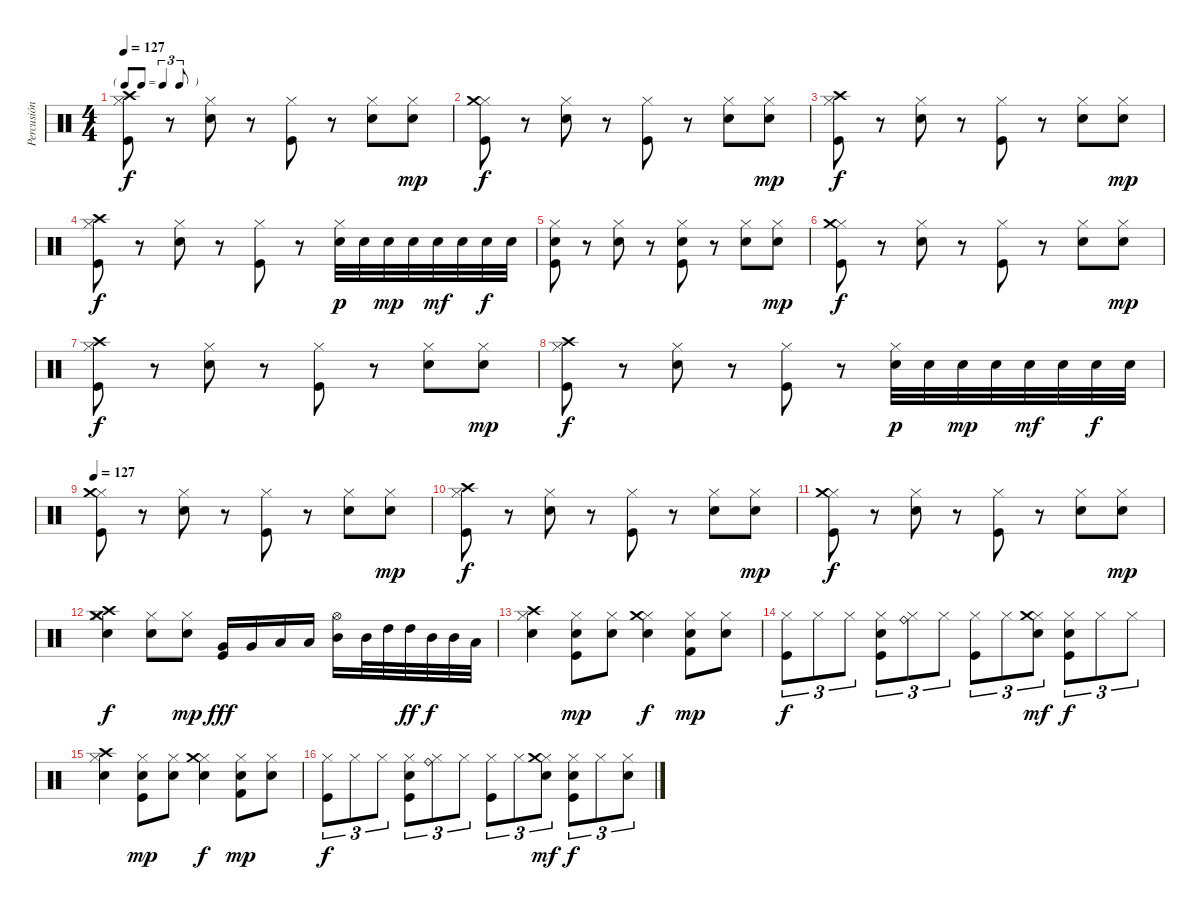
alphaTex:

\track ("Percusión" "Percusión") {instrument percussion}
\staff {score}
\articulation defaults
\ts (4 4)
\tf triplet8th
\tempo 127
\clef neutral
\ks c
("Hi-Hat (closed)" "Crash high (hit)" "Kick (hit)").8{dy f} r.8 ("Hi-Hat (closed)" "Snare (hit) 2").8 r.8 ("Hi-Hat (closed)" "Kick (hit)").8 r.8 ("Hi-Hat (closed)" "Snare (hit) 2").8 ("Hi-Hat (closed)" "Snare (hit) 2").8{dy mp} |
("Hi-Hat (closed)" "Crash medium (hit)" "Kick (hit)").8{dy f} r.8 ("Hi-Hat (closed)" "Snare (hit) 2").8 r.8 ("Hi-Hat (closed)" "Kick (hit)").8 r.8 ("Hi-Hat (closed)" "Snare (hit) 2").8 ("Hi-Hat (closed)" "Snare (hit) 2").8{dy mp} |
("Hi-Hat (closed)" "Crash high (hit)" "Kick (hit)").8{dy f} r.8 ("Hi-Hat (closed)" "Snare (hit) 2").8 r.8 ("Hi-Hat (closed)" "Kick (hit)").8 r.8 ("Hi-Hat (closed)" "Snare (hit) 2").8 ("Hi-Hat (closed)" "Snare (hit) 2").8{dy mp} |
("Hi-Hat (closed)" "Crash high (hit)" "Kick (hit)").8{dy f} r.8 ("Hi-Hat (closed)" "Snare (hit) 2").8 r.8 ("Hi-Hat (closed)" "Kick (hit)").8 r.8 ("Hi-Hat (closed)" "Snare (hit) 2").32{dy p} "Snare (hit) 2".32 "Snare (hit) 2".32{dy mp} "Snare (hit) 2".32 "Snare (hit) 2".32{dy mf} "Snare (hit) 2".32 "Snare (hit) 2".32{dy f} "Snare (hit) 2".32 |
("Hi-Hat (closed)" "Snare (hit) 2" "Kick (hit)").8 r.8 ("Hi-Hat (closed)" "Snare (hit) 2").8 r.8 ("Hi-Hat (closed)" "Snare (hit) 2" "Kick (hit)").8 r.8 ("Hi-Hat (closed)" "Snare (hit) 2").8 ("Hi-Hat (closed)" "Snare (hit) 2").8{dy mp} |
("Hi-Hat (closed)" "Crash medium (hit)" "Kick (hit)").8{dy f} r.8 ("Hi-Hat (closed)" "Snare (hit) 2").8 r.8 ("Hi-Hat (closed)" "Kick (hit)").8 r.8 ("Hi-Hat (closed)" "Snare (hit) 2").8 ("Hi-Hat (closed)" "Snare (hit) 2").8{dy mp} |
("Hi-Hat (closed)" "Crash high (hit)" "Kick (hit)").8{dy f} r.8 ("Hi-Hat (closed)" "Snare (hit) 2").8 r.8 ("Hi-Hat (closed)" "Kick (hit)").8 r.8 ("Hi-Hat (closed)" "Snare (hit) 2").8 ("Hi-Hat (closed)" "Snare (hit) 2").8{dy mp} |
("Hi-Hat (closed)" "Crash high (hit)" "Kick (hit)").8{dy f} r.8 ("Hi-Hat (closed)" "Snare (hit) 2").8 r.8 ("Hi-Hat (closed)" "Kick (hit)").8 r.8 ("Hi-Hat (closed)" "Snare (hit) 2").32{dy p} "Snare (hit) 2".32 "Snare (hit) 2".32{dy mp} "Snare (hit) 2".32 "Snare (hit) 2".32{dy mf} "Snare (hit) 2".32 "Snare (hit) 2".32{dy f} "Snare (hit) 2".32 |
\tempo 127
("Hi-Hat (closed)" "Crash medium (hit)" "Kick (hit)").8 r.8 ("Hi-Hat (closed)" "Snare (hit) 2").8 r.8 ("Hi-Hat (closed)" "Kick (hit)").8 r.8 ("Hi-Hat (closed)" "Snare (hit) 2").8 ("Hi-Hat (closed)" "Snare (hit) 2").8{dy mp} |
("Hi-Hat (closed)" "Crash high (hit)" "Kick (hit)").8{dy f} r.8 ("Hi-Hat (closed)" "Snare (hit) 2").8 r.8 ("Hi-Hat (closed)" "Kick (hit)").8 r.8 ("Hi-Hat (closed)" "Snare (hit) 2").8 ("Hi-Hat (closed)" "Snare (hit) 2").8{dy mp} |
("Hi-Hat (closed)" "Crash medium (hit)" "Kick (hit)").8{dy f} r.8 ("Hi-Hat (closed)" "Snare (hit) 2").8 r.8 ("Hi-Hat (closed)" "Kick (hit)").8 r.8 ("Hi-Hat (closed)" "Snare (hit) 2").8 ("Hi-Hat (closed)" "Snare (hit) 2").8{dy mp} |
("Crash medium (hit)" "Crash high (hit)" "Snare (hit) 2" "Hi-Hat (closed)").4{dy f} ("Hi-Hat (closed)" "Snare (hit) 2").8 ("Hi-Hat (closed)" "Snare (hit) 2").8{dy mp} ("Very Low Tom (hit)" "Kick (hit)").16{dy fff} "Very Low Tom (hit)".16 "Low Tom (hit)".16 "Low Tom (hit)".16 ("Mid Tom (hit)" "Hi-Hat (open)").16 "Mid Tom (hit)".32 "High Tom (hit)".32 "High Tom (hit)".32{dy ff} "Mid Tom (hit)".32{dy f} "Mid Tom (hit)".32 "Low Tom (hit)".32 |
("Hi-Hat (closed)" "Crash high (hit)" "Snare (hit) 2").4 ("Hi-Hat (closed)" "Snare (hit) 2" "Kick (hit)").8{dy mp} ("Hi-Hat (closed)" "Snare (hit) 2").8 ("Hi-Hat (closed)" "Crash medium (hit)" "Snare (hit) 2").4{dy f} ("Hi-Hat (closed)" "Snare (hit) 2" "Kick (hit) 2").8{dy mp} ("Hi-Hat (closed)" "Snare (hit) 2").8 |
("Hi-Hat (closed)" "Kick (hit)").8{tu (3 2) dy f} "Hi-Hat (closed)".8{tu (3 2)} "Hi-Hat (closed)".8{tu (3 2)} ("Hi-Hat (closed)" "Snare (hit) 2" "Kick (hit)").8{tu (3 2)} ("Hi-Hat (closed)" "Ride (bell)").8{tu (3 2)} "Hi-Hat (closed)".8{tu (3 2)} ("Hi-Hat (closed)" "Kick (hit)").8{tu (3 2)} "Hi-Hat (closed)".8{tu (3 2)} ("Hi-Hat (closed)" "Crash medium (hit)" "Snare (hit) 2").8{tu (3 2) dy mf} ("Hi-Hat (closed)" "Snare (hit) 2" "Kick (hit)").8{tu (3 2) dy f} "Hi-Hat (closed)".8{tu (3 2)} "Hi-Hat (closed)".8{tu (3 2)} |
("Hi-Hat (closed)" "Crash high (hit)" "Snare (hit) 2").4 ("Hi-Hat (closed)" "Snare (hit) 2" "Kick (hit)").8{dy mp} ("Hi-Hat (closed)" "Snare (hit) 2").8 ("Hi-Hat (closed)" "Crash medium (hit)" "Snare (hit) 2").4{dy f} ("Hi-Hat (closed)" "Snare (hit) 2" "Kick (hit) 2").8{dy mp} ("Hi-Hat (closed)" "Snare (hit) 2").8 |
("Hi-Hat (closed)" "Kick (hit)").8{tu (3 2) dy f} "Hi-Hat (closed)".8{tu (3 2)} "Hi-Hat (closed)".8{tu (3 2)} ("Hi-Hat (closed)" "Snare (hit) 2" "Kick (hit)").8{tu (3 2)} ("Hi-Hat (closed)" "Ride (bell)").8{tu (3 2)} "Hi-Hat (closed)".8{tu (3 2)} ("Hi-Hat (closed)" "Kick (hit)").8{tu (3 2)} "Hi-Hat (closed)".8{tu (3 2)} ("Hi-Hat (closed)" "Crash medium (hit)" "Snare (hit) 2").8{tu (3 2) dy mf} ("Hi-Hat (closed)" "Snare (hit) 2" "Kick (hit)").8{tu (3 2) dy f} "Hi-Hat (closed)".8{tu (3 2)} ("Hi-Hat (closed)" "Snare (hit) 2").8{tu (3 2)}
